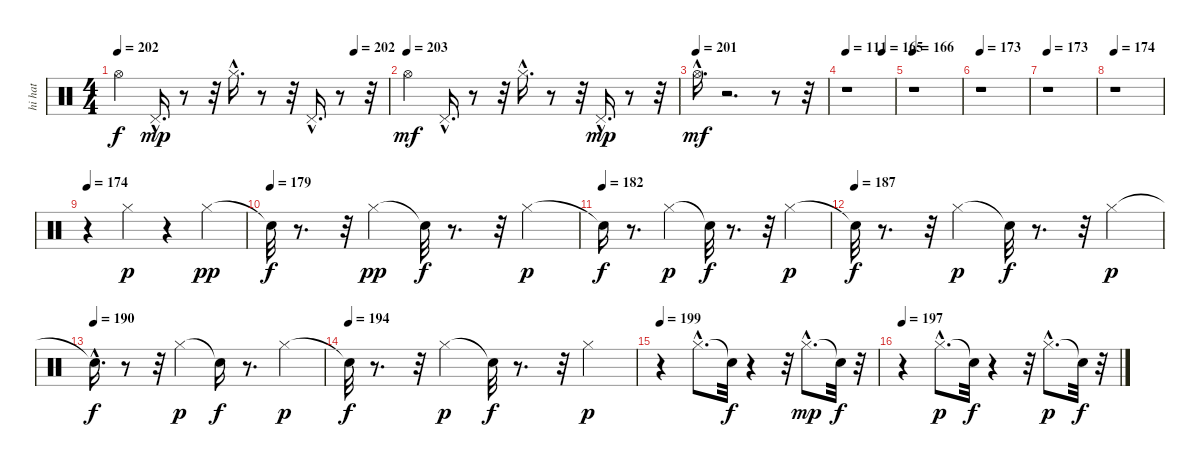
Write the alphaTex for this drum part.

\track ("hi hat" "hi hat") {instrument percussion}
\staff {score}
\articulation defaults
\ts (4 4)
\tempo 202
\tempo (202 0.875)
\clef neutral
\ks c "Hi-Hat (open)".4{dy f} "Pedal Hi-Hat (hit)"{hac}.16{d dy mp}
r.8 r.32 "Hi-Hat (closed)"{hac}.16{d} r.8 r.32 "Pedal Hi-Hat (hit)"{hac}.16{d} r.8 r.32 |
\tempo (203)
"Hi-Hat (open)".4{dy mf} "Pedal Hi-Hat (hit)"{hac}.16{d} r.8 r.32 "Hi-Hat (closed)"{hac}.16{d} r.8 r.32 "Pedal Hi-Hat (hit)"{hac}.16{d dy mp} r.8 r.32 |
\tempo (201)
"Hi-Hat (open)"{hac}.16{d dy mf} r.2{d} r.8 r.32 |
\tempo 111
\tempo (165 0.75)
r.1 |
\tempo 166
r.1 |
\tempo 173
r.1 |
\tempo 173
r.1 |
\tempo 174
r.1 |
\tempo 174
r.4 "Hi-Hat (closed)".4{dy p} r.4 "Hi-Hat (closed)".4{dy pp} |
\tempo (179)
"Snare (hit)"{t}.32{dy f} r.8{d} r.32 "Hi-Hat (closed)".4{dy pp} "Snare (hit)"{t}.32{dy f} r.8{d} r.32 "Hi-Hat (closed)".4{dy p} |
\tempo (182)
"Snare (hit)"{t}.16{dy f} r.8{d} "Hi-Hat (closed)".4{dy p} "Snare (hit)"{t}.32{dy f} r.8{d} r.32 "Hi-Hat (closed)".4{dy p} |
\tempo (187)
"Snare (hit)"{t}.32{dy f} r.8{d} r.32 "Hi-Hat (closed)".4{dy p} "Snare (hit)"{t}.32{dy f} r.8{d} r.32 "Hi-Hat (closed)".4{dy p} |
\tempo (190)
"Snare (hit)"{hac t}.16{d dy f} r.8 r.32 "Hi-Hat (closed)".4{dy p} "Snare (hit)"{t}.16{dy f} r.8{d} "Hi-Hat (closed)".4{dy p} |
\tempo (194)
"Snare (hit)"{t}.32{dy f} r.8{d} r.32 "Hi-Hat (closed)".4{dy p} "Snare (hit)"{t}.32{dy f} r.8{d} r.32 "Hi-Hat (closed)".4{dy p} |
\tempo 199
r.4 "Hi-Hat (closed)"{hac}.8{d} "Snare (hit)"{t}.32{dy f} r.4 r.32 "Hi-Hat (closed)"{hac}.8{d dy mp} "Snare (hit)"{t}.32{dy f} r.32 |
\tempo 197
r.4 "Hi-Hat (closed)"{hac}.8{d dy p} "Snare (hit)"{t}.32{dy f} r.4 r.32 "Hi-Hat (closed)"{hac}.8{d dy p} "Snare (hit)"{t}.32{dy f} r.32
